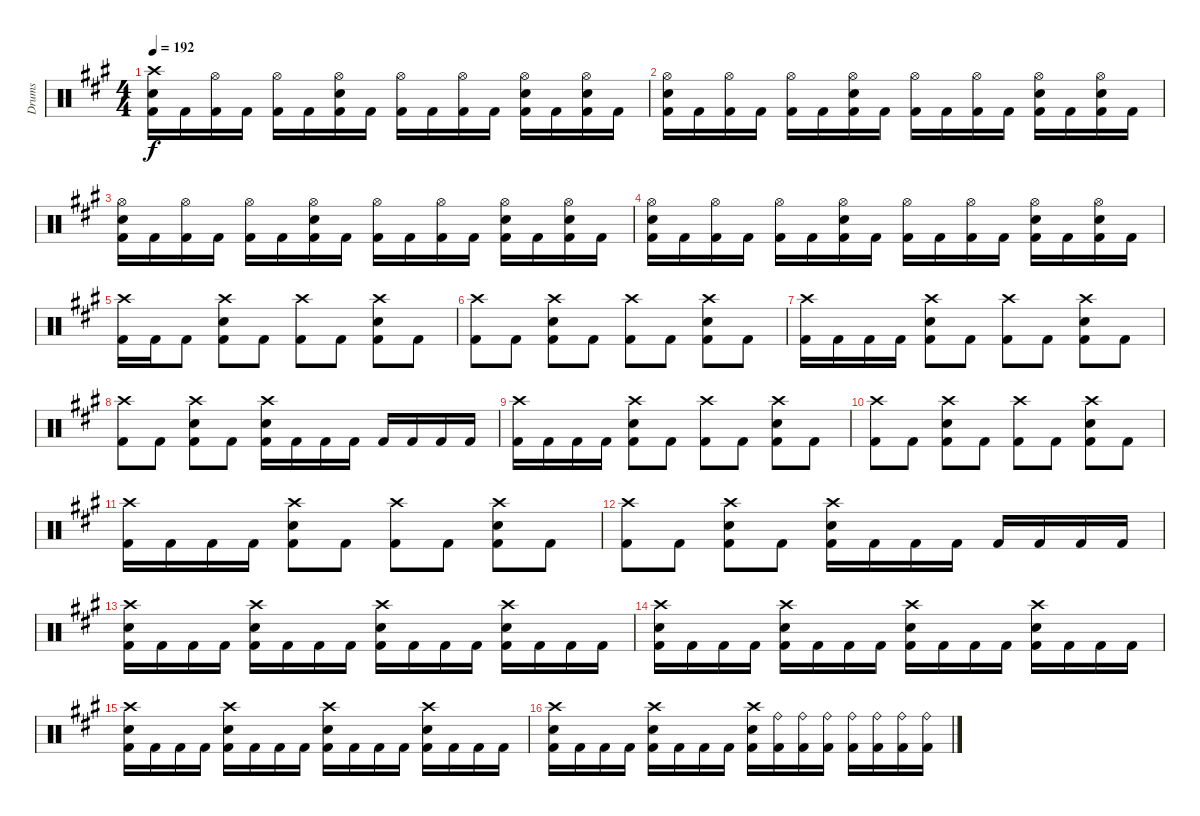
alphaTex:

\track ("Drums" "Drums") {instrument percussion}
\staff {score}
\articulation defaults
\ts (4 4)
\tempo 192
\clef neutral
\ks f#minor
("Crash high (hit)" "Snare (hit) 2" "Kick (hit) 2").16{dy f} "Kick (hit) 2".16 ("Hi-Hat (open)" "Kick (hit) 2").16 "Kick (hit) 2".16 ("Hi-Hat (open)" "Kick (hit) 2").16 "Kick (hit) 2".16 ("Hi-Hat (open)" "Snare (hit) 2" "Kick (hit) 2").16 "Kick (hit) 2".16 ("Hi-Hat (open)" "Kick (hit) 2").16 "Kick (hit) 2".16 ("Hi-Hat (open)" "Kick (hit) 2").16 "Kick (hit) 2".16 ("Hi-Hat (open)" "Snare (hit) 2" "Kick (hit) 2").16 "Kick (hit) 2".16 ("Hi-Hat (open)" "Snare (hit) 2" "Kick (hit) 2").16 "Kick (hit) 2".16 |
("Hi-Hat (open)" "Snare (hit) 2" "Kick (hit) 2").16 "Kick (hit) 2".16 ("Hi-Hat (open)" "Kick (hit) 2").16 "Kick (hit) 2".16 ("Hi-Hat (open)" "Kick (hit) 2").16 "Kick (hit) 2".16 ("Hi-Hat (open)" "Snare (hit) 2" "Kick (hit) 2").16 "Kick (hit) 2".16 ("Hi-Hat (open)" "Kick (hit) 2").16 "Kick (hit) 2".16 ("Hi-Hat (open)" "Kick (hit) 2").16 "Kick (hit) 2".16 ("Hi-Hat (open)" "Snare (hit) 2" "Kick (hit) 2").16 "Kick (hit) 2".16 ("Hi-Hat (open)" "Snare (hit) 2" "Kick (hit) 2").16 "Kick (hit) 2".16 |
("Hi-Hat (open)" "Snare (hit) 2" "Kick (hit) 2").16 "Kick (hit) 2".16 ("Hi-Hat (open)" "Kick (hit) 2").16 "Kick (hit) 2".16 ("Hi-Hat (open)" "Kick (hit) 2").16 "Kick (hit) 2".16 ("Hi-Hat (open)" "Snare (hit) 2" "Kick (hit) 2").16 "Kick (hit) 2".16 ("Hi-Hat (open)" "Kick (hit) 2").16 "Kick (hit) 2".16 ("Hi-Hat (open)" "Kick (hit) 2").16 "Kick (hit) 2".16 ("Hi-Hat (open)" "Snare (hit) 2" "Kick (hit) 2").16 "Kick (hit) 2".16 ("Hi-Hat (open)" "Snare (hit) 2" "Kick (hit) 2").16 "Kick (hit) 2".16 |
("Hi-Hat (open)" "Snare (hit) 2" "Kick (hit) 2").16 "Kick (hit) 2".16 ("Hi-Hat (open)" "Kick (hit) 2").16 "Kick (hit) 2".16 ("Hi-Hat (open)" "Kick (hit) 2").16 "Kick (hit) 2".16 ("Hi-Hat (open)" "Snare (hit) 2" "Kick (hit) 2").16 "Kick (hit) 2".16 ("Hi-Hat (open)" "Kick (hit) 2").16 "Kick (hit) 2".16 ("Hi-Hat (open)" "Kick (hit) 2").16 "Kick (hit) 2".16 ("Hi-Hat (open)" "Snare (hit) 2" "Kick (hit) 2").16 "Kick (hit) 2".16 ("Hi-Hat (open)" "Snare (hit) 2" "Kick (hit) 2").16 "Kick (hit) 2".16 |
("Crash high (hit)" "Kick (hit) 2").16 "Kick (hit) 2".16 "Kick (hit) 2".8 ("Crash high (hit)" "Snare (hit) 2" "Kick (hit) 2").8 "Kick (hit) 2".8 ("Crash high (hit)" "Kick (hit) 2").8 "Kick (hit) 2".8 ("Crash high (hit)" "Snare (hit) 2" "Kick (hit) 2").8 "Kick (hit) 2".8 |
("Crash high (hit)" "Kick (hit) 2").8 "Kick (hit) 2".8 ("Crash high (hit)" "Snare (hit) 2" "Kick (hit) 2").8 "Kick (hit) 2".8 ("Crash high (hit)" "Kick (hit) 2").8 "Kick (hit) 2".8 ("Crash high (hit)" "Snare (hit) 2" "Kick (hit) 2").8 "Kick (hit) 2".8 |
("Crash high (hit)" "Kick (hit) 2").16 "Kick (hit) 2".16 "Kick (hit) 2".16 "Kick (hit) 2".16 ("Crash high (hit)" "Snare (hit) 2" "Kick (hit) 2").8 "Kick (hit) 2".8 ("Crash high (hit)" "Kick (hit) 2").8 "Kick (hit) 2".8 ("Crash high (hit)" "Snare (hit) 2" "Kick (hit) 2").8 "Kick (hit) 2".8 |
("Crash high (hit)" "Kick (hit) 2").8 "Kick (hit) 2".8 ("Crash high (hit)" "Snare (hit) 2" "Kick (hit) 2").8 "Kick (hit) 2".8 ("Crash high (hit)" "Snare (hit) 2" "Kick (hit) 2").16 "Kick (hit) 2".16 "Kick (hit) 2".16 "Kick (hit) 2".16 "Kick (hit) 2".16 "Kick (hit) 2".16 "Kick (hit) 2".16 "Kick (hit) 2".16 |
("Crash high (hit)" "Kick (hit) 2").16 "Kick (hit) 2".16 "Kick (hit) 2".16 "Kick (hit) 2".16 ("Crash high (hit)" "Snare (hit) 2" "Kick (hit) 2").8 "Kick (hit) 2".8 ("Crash high (hit)" "Kick (hit) 2").8 "Kick (hit) 2".8 ("Crash high (hit)" "Snare (hit) 2" "Kick (hit) 2").8 "Kick (hit) 2".8 |
("Crash high (hit)" "Kick (hit) 2").8 "Kick (hit) 2".8 ("Crash high (hit)" "Snare (hit) 2" "Kick (hit) 2").8 "Kick (hit) 2".8 ("Crash high (hit)" "Kick (hit) 2").8 "Kick (hit) 2".8 ("Crash high (hit)" "Snare (hit) 2" "Kick (hit) 2").8 "Kick (hit) 2".8 |
("Crash high (hit)" "Kick (hit) 2").16 "Kick (hit) 2".16 "Kick (hit) 2".16 "Kick (hit) 2".16 ("Crash high (hit)" "Snare (hit) 2" "Kick (hit) 2").8 "Kick (hit) 2".8 ("Crash high (hit)" "Kick (hit) 2").8 "Kick (hit) 2".8 ("Crash high (hit)" "Snare (hit) 2" "Kick (hit) 2").8 "Kick (hit) 2".8 |
("Crash high (hit)" "Kick (hit) 2").8 "Kick (hit) 2".8 ("Crash high (hit)" "Snare (hit) 2" "Kick (hit) 2").8 "Kick (hit) 2".8 ("Crash high (hit)" "Snare (hit) 2" "Kick (hit) 2").16 "Kick (hit) 2".16 "Kick (hit) 2".16 "Kick (hit) 2".16 "Kick (hit) 2".16 "Kick (hit) 2".16 "Kick (hit) 2".16 "Kick (hit) 2".16 |
("Crash high (hit)" "Snare (hit) 2" "Kick (hit) 2").16 "Kick (hit) 2".16 "Kick (hit) 2".16 "Kick (hit) 2".16 ("Crash high (hit)" "Snare (hit) 2" "Kick (hit) 2").16 "Kick (hit) 2".16 "Kick (hit) 2".16 "Kick (hit) 2".16 ("Crash high (hit)" "Snare (hit) 2" "Kick (hit) 2").16 "Kick (hit) 2".16 "Kick (hit) 2".16 "Kick (hit) 2".16 ("Crash high (hit)" "Snare (hit) 2" "Kick (hit) 2").16 "Kick (hit) 2".16 "Kick (hit) 2".16 "Kick (hit) 2".16 |
("Crash high (hit)" "Snare (hit) 2" "Kick (hit) 2").16 "Kick (hit) 2".16 "Kick (hit) 2".16 "Kick (hit) 2".16 ("Crash high (hit)" "Snare (hit) 2" "Kick (hit) 2").16 "Kick (hit) 2".16 "Kick (hit) 2".16 "Kick (hit) 2".16 ("Crash high (hit)" "Snare (hit) 2" "Kick (hit) 2").16 "Kick (hit) 2".16 "Kick (hit) 2".16 "Kick (hit) 2".16 ("Crash high (hit)" "Snare (hit) 2" "Kick (hit) 2").16 "Kick (hit) 2".16 "Kick (hit) 2".16 "Kick (hit) 2".16 |
("Crash high (hit)" "Snare (hit) 2" "Kick (hit) 2").16 "Kick (hit) 2".16 "Kick (hit) 2".16 "Kick (hit) 2".16 ("Crash high (hit)" "Snare (hit) 2" "Kick (hit) 2").16 "Kick (hit) 2".16 "Kick (hit) 2".16 "Kick (hit) 2".16 ("Crash high (hit)" "Snare (hit) 2" "Kick (hit) 2").16 "Kick (hit) 2".16 "Kick (hit) 2".16 "Kick (hit) 2".16 ("Crash high (hit)" "Snare (hit) 2" "Kick (hit) 2").16 "Kick (hit) 2".16 "Kick (hit) 2".16 "Kick (hit) 2".16 |
("Crash high (hit)" "Snare (hit) 2" "Kick (hit) 2").16 "Kick (hit) 2".16 "Kick (hit) 2".16 "Kick (hit) 2".16 ("Crash high (hit)" "Snare (hit) 2" "Kick (hit) 2").16 "Kick (hit) 2".16 "Kick (hit) 2".16 "Kick (hit) 2".16 ("Crash high (hit)" "Snare (hit) 2" "Kick (hit) 2").16 ("Ride (bell)" "Kick (hit) 2").16 ("Ride (bell)" "Kick (hit) 2").16 ("Ride (bell)" "Kick (hit) 2").16 ("Ride (bell)" "Kick (hit) 2").16 ("Ride (bell)" "Kick (hit) 2").16 ("Ride (bell)" "Kick (hit) 2").16 ("Ride (bell)" "Kick (hit) 2").16
